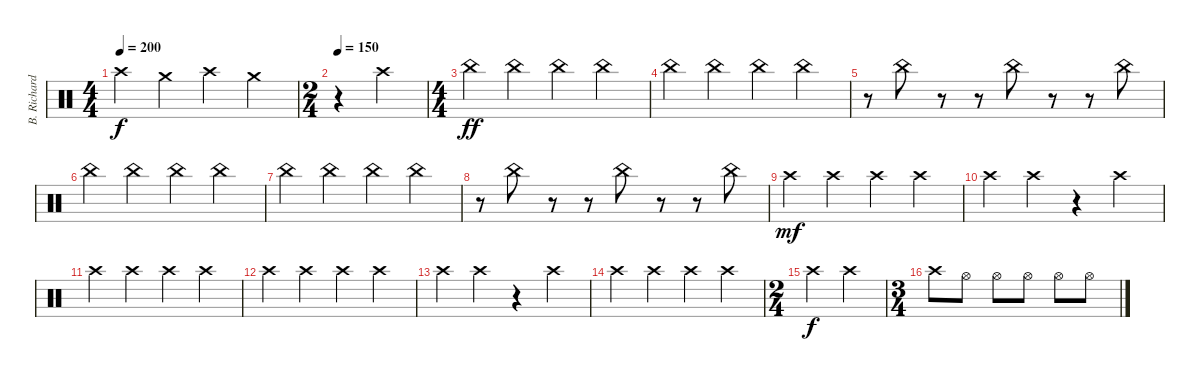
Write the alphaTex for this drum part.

\track ("B. Richardson Drums" "B. Richard") {instrument percussion}
\staff {score}
\articulation defaults
\ts (4 4)
\tempo 200
\clef neutral
\ks c "Crash high (hit)".4{dy f} "Crash medium (hit)".4 "Crash high (hit)".4 "Crash medium (hit)".4
|
\ts (2 4)
\tempo 150
r.4 "Crash high (hit)".4 |
\ts (4 4)
"China (hit)".4{dy ff} "China (hit)".4 "China (hit)".4 "China (hit)".4 |
"China (hit)".4 "China (hit)".4 "China (hit)".4 "China (hit)".4 |
r.8 "China (hit)".8 r.8 r.8 "China (hit)".8 r.8 r.8 "China (hit)".8 |
"China (hit)".4 "China (hit)".4 "China (hit)".4 "China (hit)".4 |
"China (hit)".4 "China (hit)".4 "China (hit)".4 "China (hit)".4 |
r.8 "China (hit)".8 r.8 r.8 "China (hit)".8 r.8 r.8 "China (hit)".8 |
"Crash high (hit)".4{dy mf} "Crash high (hit)".4 "Crash high (hit)".4 "Crash high (hit)".4 |
"Crash high (hit)".4 "Crash high (hit)".4 r.4 "Crash high (hit)".4 |
"Crash high (hit)".4 "Crash high (hit)".4 "Crash high (hit)".4 "Crash high (hit)".4 |
"Crash high (hit)".4 "Crash high (hit)".4 "Crash high (hit)".4 "Crash high (hit)".4 |
"Crash high (hit)".4 "Crash high (hit)".4 r.4 "Crash high (hit)".4 |
"Crash high (hit)".4 "Crash high (hit)".4 "Crash high (hit)".4 "Crash high (hit)".4 |
\ts (2 4)
"Crash high (hit)".4{dy f} "Crash high (hit)".4 |
\ts (3 4)
"Crash high (hit)".8 "Hi-Hat (open)".8 "Hi-Hat (open)".8 "Hi-Hat (open)".8 "Hi-Hat (open)".8 "Hi-Hat (open)".8
